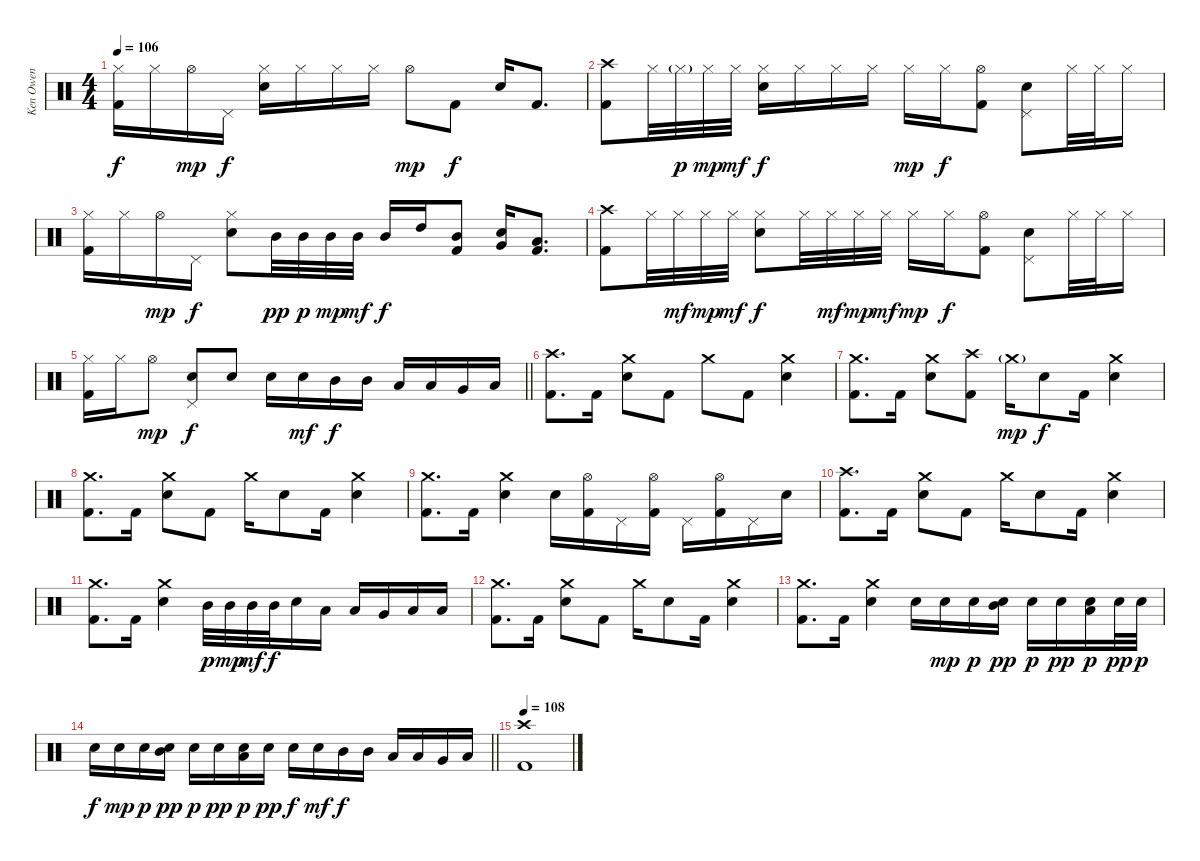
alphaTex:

\track ("Ken Owen" "Ken Owen") {instrument percussion}
\staff {score}
\articulation defaults
\ts (4 4)
\tempo 106
\clef neutral
\ks c
("Hi-Hat (closed)" "Kick (hit) 2").16{dy f} "Hi-Hat (closed)".16 "Hi-Hat (open)".16{dy mp} "Pedal Hi-Hat (hit)".16{dy f} ("Hi-Hat (closed)" "Electric Snare (hit)").16 "Hi-Hat (closed)".16 "Hi-Hat (closed)".16 "Hi-Hat (closed)".16 "Hi-Hat (open)".8{dy mp} "Kick (hit) 2".8{dy f} "Electric Snare (hit)".16 "Kick (hit) 2".8{d} |
("Crash high (hit)" "Kick (hit) 2").8 "Hi-Hat (closed)".32 "Hi-Hat (closed)"{g}.32{dy p} "Hi-Hat (closed)".32{dy mp} "Hi-Hat (closed)".32{dy mf} ("Hi-Hat (closed)" "Electric Snare (hit)").16{dy f} "Hi-Hat (closed)".16 "Hi-Hat (closed)".16 "Hi-Hat (closed)".16 "Hi-Hat (closed)".16{dy mp} "Hi-Hat (closed)".16{dy f} ("Hi-Hat (open)" "Kick (hit) 2").8 ("Pedal Hi-Hat (hit)" "Electric Snare (hit)").8 "Hi-Hat (closed)".32 "Hi-Hat (closed)".32 "Hi-Hat (closed)".16 |
("Hi-Hat (closed)" "Kick (hit) 2").16 "Hi-Hat (closed)".16 "Hi-Hat (open)".16{dy mp} "Pedal Hi-Hat (hit)".16{dy f} ("Hi-Hat (closed)" "Electric Snare (hit)").8 "Mid Tom (hit)".32{dy pp} "Mid Tom (hit)".32{dy p} "Mid Tom (hit)".32{dy mp} "Mid Tom (hit)".32{dy mf} "Mid Tom (hit)".16{dy f} "High Tom (hit)".16 ("Mid Tom (hit)" "Kick (hit) 2").8 ("Electric Snare (hit)" "Very Low Tom (hit)").16 ("Low Floor Tom (hit)" "Kick (hit) 2").8{d} |
("Crash high (hit)" "Kick (hit) 2").8 "Hi-Hat (closed)".32 "Hi-Hat (closed)".32{dy mf} "Hi-Hat (closed)".32{dy mp} "Hi-Hat (closed)".32{dy mf} ("Hi-Hat (closed)" "Electric Snare (hit)").8{dy f} "Hi-Hat (closed)".32 "Hi-Hat (closed)".32{dy mf} "Hi-Hat (closed)".32{dy mp} "Hi-Hat (closed)".32{dy mf} "Hi-Hat (closed)".16{dy mp} "Hi-Hat (closed)".16{dy f} ("Hi-Hat (open)" "Kick (hit) 2").8 ("Pedal Hi-Hat (hit)" "Electric Snare (hit)").8 "Hi-Hat (closed)".32 "Hi-Hat (closed)".32 "Hi-Hat (closed)".16 |
\barLineRight lightlight
("Hi-Hat (closed)" "Kick (hit) 2").16 "Hi-Hat (closed)".16 "Hi-Hat (open)".8{dy mp} ("Pedal Hi-Hat (hit)" "Electric Snare (hit)").8{dy f} "Electric Snare (hit)".8 "Electric Snare (hit)".16 "Electric Snare (hit)".16{dy mf} "Mid Tom (hit)".16{dy f} "Mid Tom (hit)".16 "Low Tom (hit)".16 "Low Tom (hit)".16 "Very Low Tom (hit)".16 "Low Floor Tom (hit)".16 |
\section ("" "")
("Crash high (hit)" "Kick (hit) 2").8{d} "Kick (hit) 2".16 ("Crash medium (hit)" "Electric Snare (hit)").8 "Kick (hit) 2".8 "Crash medium (hit)".8 "Kick (hit) 2".8 ("Crash medium (hit)" "Electric Snare (hit)").4 |
("Crash medium (hit)" "Kick (hit) 2").8{d} "Kick (hit) 2".16 ("Crash medium (hit)" "Electric Snare (hit)").8 ("Crash high (hit)" "Kick (hit) 2").8 "Crash medium (hit)"{g}.16{dy mp} "Electric Snare (hit)".8{dy f} "Kick (hit) 2".16 ("Crash medium (hit)" "Electric Snare (hit)").4 |
("Crash medium (hit)" "Kick (hit) 2").8{d} "Kick (hit) 2".16 ("Crash medium (hit)" "Electric Snare (hit)").8 "Kick (hit) 2".8 "Crash medium (hit)".16 "Electric Snare (hit)".8 "Kick (hit) 2".16 ("Crash medium (hit)" "Electric Snare (hit)").4 |
("Crash medium (hit)" "Kick (hit) 2").8{d} "Kick (hit) 2".16 ("Crash medium (hit)" "Electric Snare (hit)").4 "Electric Snare (hit)".16 ("Hi-Hat (open)" "Kick (hit) 2").16 "Pedal Hi-Hat (hit)".16 ("Hi-Hat (open)" "Kick (hit) 2").16 "Pedal Hi-Hat (hit)".16 ("Hi-Hat (open)" "Kick (hit) 2").16 "Pedal Hi-Hat (hit)".16 "Electric Snare (hit)".16 |
("Crash high (hit)" "Kick (hit) 2").8{d} "Kick (hit) 2".16 ("Crash medium (hit)" "Electric Snare (hit)").8 "Kick (hit) 2".8 "Crash medium (hit)".16 "Electric Snare (hit)".8 "Kick (hit) 2".16 ("Crash medium (hit)" "Electric Snare (hit)").4 |
("Crash medium (hit)" "Kick (hit) 2").8{d} "Kick (hit) 2".16 ("Crash medium (hit)" "Electric Snare (hit)").4 "Mid Tom (hit)".32{dy p} "Mid Tom (hit)".32{dy mp} "Mid Tom (hit)".32{dy mf} "Mid Tom (hit)".32{dy f} "Electric Snare (hit)".16 "Low Tom (hit)".16 "Low Tom (hit)".16 "Very Low Tom (hit)".16 "Low Floor Tom (hit)".16 "Low Floor Tom (hit)".16 |
("Crash medium (hit)" "Kick (hit) 2").8{d} "Kick (hit) 2".16 ("Crash medium (hit)" "Electric Snare (hit)").8 "Kick (hit) 2".8 "Crash medium (hit)".16 "Electric Snare (hit)".8 "Kick (hit) 2".16 ("Crash medium (hit)" "Electric Snare (hit)").4 |
("Crash medium (hit)" "Kick (hit) 2").8{d} "Kick (hit) 2".16 ("Crash medium (hit)" "Electric Snare (hit)").4 "Electric Snare (hit)".16 "Electric Snare (hit)".16{dy mp} "Electric Snare (hit)".16{dy p} ("Mid Tom (hit)" "Electric Snare (hit)").16{dy pp} "Electric Snare (hit)".16{dy p} "Electric Snare (hit)".16{dy pp} ("Low Tom (hit)" "Electric Snare (hit)").16{dy p} "Electric Snare (hit)".32{dy pp} "Electric Snare (hit)".32{dy p} |
\barLineRight lightlight "Electric Snare (hit)".16{dy f} "Electric Snare (hit)".16{dy mp} "Electric Snare (hit)".16{dy p}
("Mid Tom (hit)" "Electric Snare (hit)").16{dy pp} "Electric Snare (hit)".16{dy p} "Electric Snare (hit)".16{dy pp} ("Low Tom (hit)" "Electric Snare (hit)").16{dy p} "Electric Snare (hit)".16{dy pp} "Electric Snare (hit)".16{dy f} "Electric Snare (hit)".16{dy mf} "Mid Tom (hit)".16{dy f} "Mid Tom (hit)".16 "Low Tom (hit)".16 "Low Tom (hit)".16 "Very Low Tom (hit)".16 "Low Floor Tom (hit)".16 |
\section ("" "")
\tempo 108
("Crash high (hit)" "Kick (hit) 2").1
